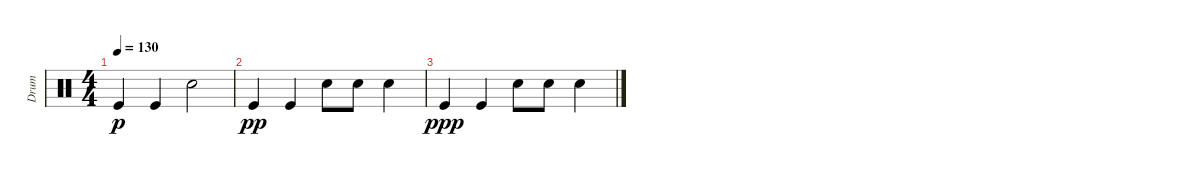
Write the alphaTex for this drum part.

\track ("Drum" "Drum") {instrument percussion}
\staff {score}
\articulation defaults
\ts (4 4)
\tempo 130
\clef neutral
\ks c "Kick (hit)".4{dy p} "Kick (hit)".4 "Snare (hit) 2".2
|
"Kick (hit)".4{dy pp} "Kick (hit)".4 "Snare (hit) 2".8 "Snare (hit) 2".8 "Snare (hit) 2".4 |
"Kick (hit)".4{dy ppp} "Kick (hit)".4 "Snare (hit) 2".8 "Snare (hit) 2".8 "Snare (hit) 2".4
